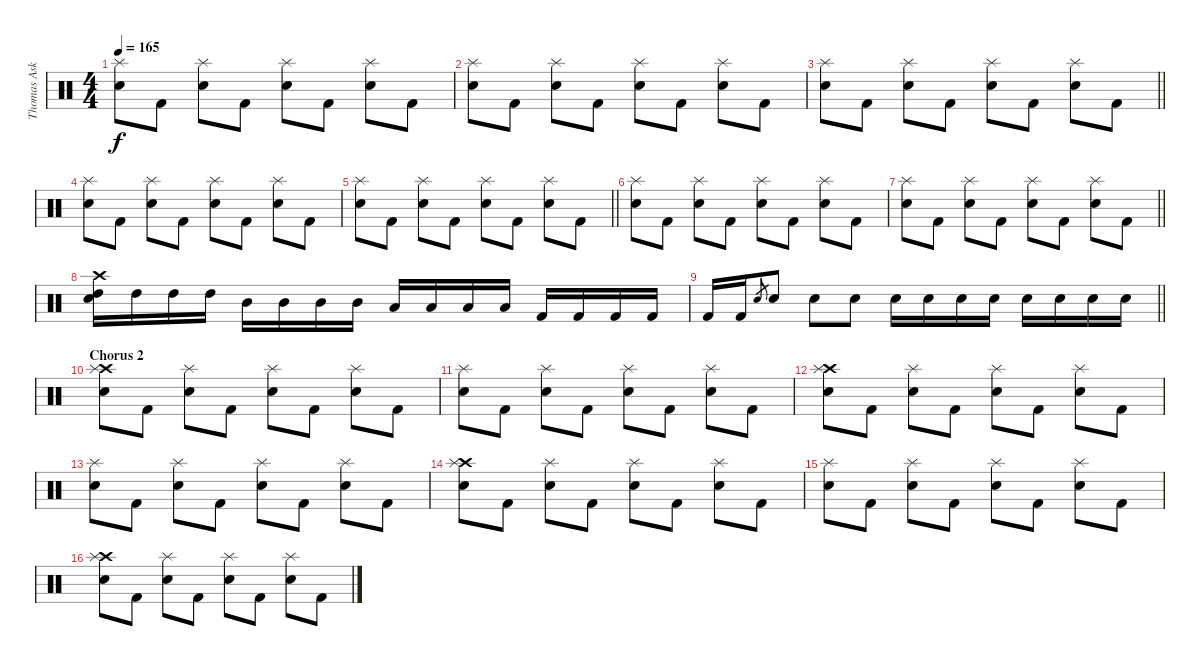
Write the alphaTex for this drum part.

\track ("Thomas Asklund" "Thomas Ask") {instrument percussion}
\staff {score}
\articulation defaults
\ts (4 4)
\tempo 165
\clef neutral
\ks c
("Splash (hit)" "Snare (hit) 2").8{dy f} "Kick (hit) 2".8 ("Splash (hit)" "Snare (hit) 2").8 "Kick (hit) 2".8 ("Splash (hit)" "Snare (hit) 2").8 "Kick (hit) 2".8 ("Splash (hit)" "Snare (hit) 2").8 "Kick (hit) 2".8 |
("Splash (hit)" "Snare (hit) 2").8 "Kick (hit) 2".8 ("Splash (hit)" "Snare (hit) 2").8 "Kick (hit) 2".8 ("Splash (hit)" "Snare (hit) 2").8 "Kick (hit) 2".8 ("Splash (hit)" "Snare (hit) 2").8 "Kick (hit) 2".8 |
\barLineRight lightlight
("Splash (hit)" "Snare (hit) 2").8 "Kick (hit) 2".8 ("Splash (hit)" "Snare (hit) 2").8 "Kick (hit) 2".8 ("Splash (hit)" "Snare (hit) 2").8 "Kick (hit) 2".8 ("Splash (hit)" "Snare (hit) 2").8 "Kick (hit) 2".8 |
("Splash (hit)" "Snare (hit) 2").8 "Kick (hit) 2".8 ("Splash (hit)" "Snare (hit) 2").8 "Kick (hit) 2".8 ("Splash (hit)" "Snare (hit) 2").8 "Kick (hit) 2".8 ("Splash (hit)" "Snare (hit) 2").8 "Kick (hit) 2".8 |
\barLineRight lightlight
("Splash (hit)" "Snare (hit) 2").8 "Kick (hit) 2".8 ("Splash (hit)" "Snare (hit) 2").8 "Kick (hit) 2".8 ("Splash (hit)" "Snare (hit) 2").8 "Kick (hit) 2".8 ("Splash (hit)" "Snare (hit) 2").8 "Kick (hit) 2".8 |
("Splash (hit)" "Snare (hit) 2").8 "Kick (hit) 2".8 ("Splash (hit)" "Snare (hit) 2").8 "Kick (hit) 2".8 ("Splash (hit)" "Snare (hit) 2").8 "Kick (hit) 2".8 ("Splash (hit)" "Snare (hit) 2").8 "Kick (hit) 2".8 |
\barLineRight lightlight
("Splash (hit)" "Snare (hit) 2").8 "Kick (hit) 2".8 ("Splash (hit)" "Snare (hit) 2").8 "Kick (hit) 2".8 ("Splash (hit)" "Snare (hit) 2").8 "Kick (hit) 2".8 ("Splash (hit)" "Snare (hit) 2").8 "Kick (hit) 2".8 |
("Snare (hit) 2" "Crash high (hit)" "High Tom (hit)").16 "High Tom (hit)".16 "High Tom (hit)".16 "High Tom (hit)".16 "Mid Tom (hit)".16 "Mid Tom (hit)".16 "Mid Tom (hit)".16 "Mid Tom (hit)".16 "Low Tom (hit)".16 "Low Tom (hit)".16 "Low Tom (hit)".16 "Low Tom (hit)".16 "Kick (hit) 2".16 "Kick (hit) 2".16 "Kick (hit) 2".16 "Kick (hit) 2".16 |
\barLineRight lightlight "Kick (hit) 2".16 "Kick (hit) 2".16 "Electric Snare (hit)".8{gr} "Electric Snare (hit)".8 "Electric Snare (hit)".8 "Electric Snare (hit)".8 "Snare (hit) 2".16 "Snare (hit) 2".16 "Snare (hit) 2".16 "Snare (hit) 2".16 "Snare (hit) 2".16 "Snare (hit) 2".16 "Snare (hit) 2".16 "Snare (hit) 2".16
|
\section ("" "Chorus 2")
("Crash high (hit)" "Splash (hit)" "Snare (hit) 2").8 "Kick (hit) 2".8 ("Splash (hit)" "Snare (hit) 2").8 "Kick (hit) 2".8 ("Splash (hit)" "Snare (hit) 2").8 "Kick (hit) 2".8 ("Splash (hit)" "Snare (hit) 2").8 "Kick (hit) 2".8 |
("Splash (hit)" "Snare (hit) 2").8 "Kick (hit) 2".8 ("Splash (hit)" "Snare (hit) 2").8 "Kick (hit) 2".8 ("Splash (hit)" "Snare (hit) 2").8 "Kick (hit) 2".8 ("Splash (hit)" "Snare (hit) 2").8 "Kick (hit) 2".8 |
("Crash high (hit)" "Splash (hit)" "Snare (hit) 2").8 "Kick (hit) 2".8 ("Splash (hit)" "Snare (hit) 2").8 "Kick (hit) 2".8 ("Splash (hit)" "Snare (hit) 2").8 "Kick (hit) 2".8 ("Splash (hit)" "Snare (hit) 2").8 "Kick (hit) 2".8 |
("Splash (hit)" "Snare (hit) 2").8 "Kick (hit) 2".8 ("Splash (hit)" "Snare (hit) 2").8 "Kick (hit) 2".8 ("Splash (hit)" "Snare (hit) 2").8 "Kick (hit) 2".8 ("Splash (hit)" "Snare (hit) 2").8 "Kick (hit) 2".8 |
("Crash high (hit)" "Splash (hit)" "Snare (hit) 2").8 "Kick (hit) 2".8 ("Splash (hit)" "Snare (hit) 2").8 "Kick (hit) 2".8 ("Splash (hit)" "Snare (hit) 2").8 "Kick (hit) 2".8 ("Splash (hit)" "Snare (hit) 2").8 "Kick (hit) 2".8 |
("Splash (hit)" "Snare (hit) 2").8 "Kick (hit) 2".8 ("Splash (hit)" "Snare (hit) 2").8 "Kick (hit) 2".8 ("Splash (hit)" "Snare (hit) 2").8 "Kick (hit) 2".8 ("Splash (hit)" "Snare (hit) 2").8 "Kick (hit) 2".8 |
("Crash high (hit)" "Splash (hit)" "Snare (hit) 2").8 "Kick (hit) 2".8 ("Splash (hit)" "Snare (hit) 2").8 "Kick (hit) 2".8 ("Splash (hit)" "Snare (hit) 2").8 "Kick (hit) 2".8 ("Splash (hit)" "Snare (hit) 2").8 "Kick (hit) 2".8
